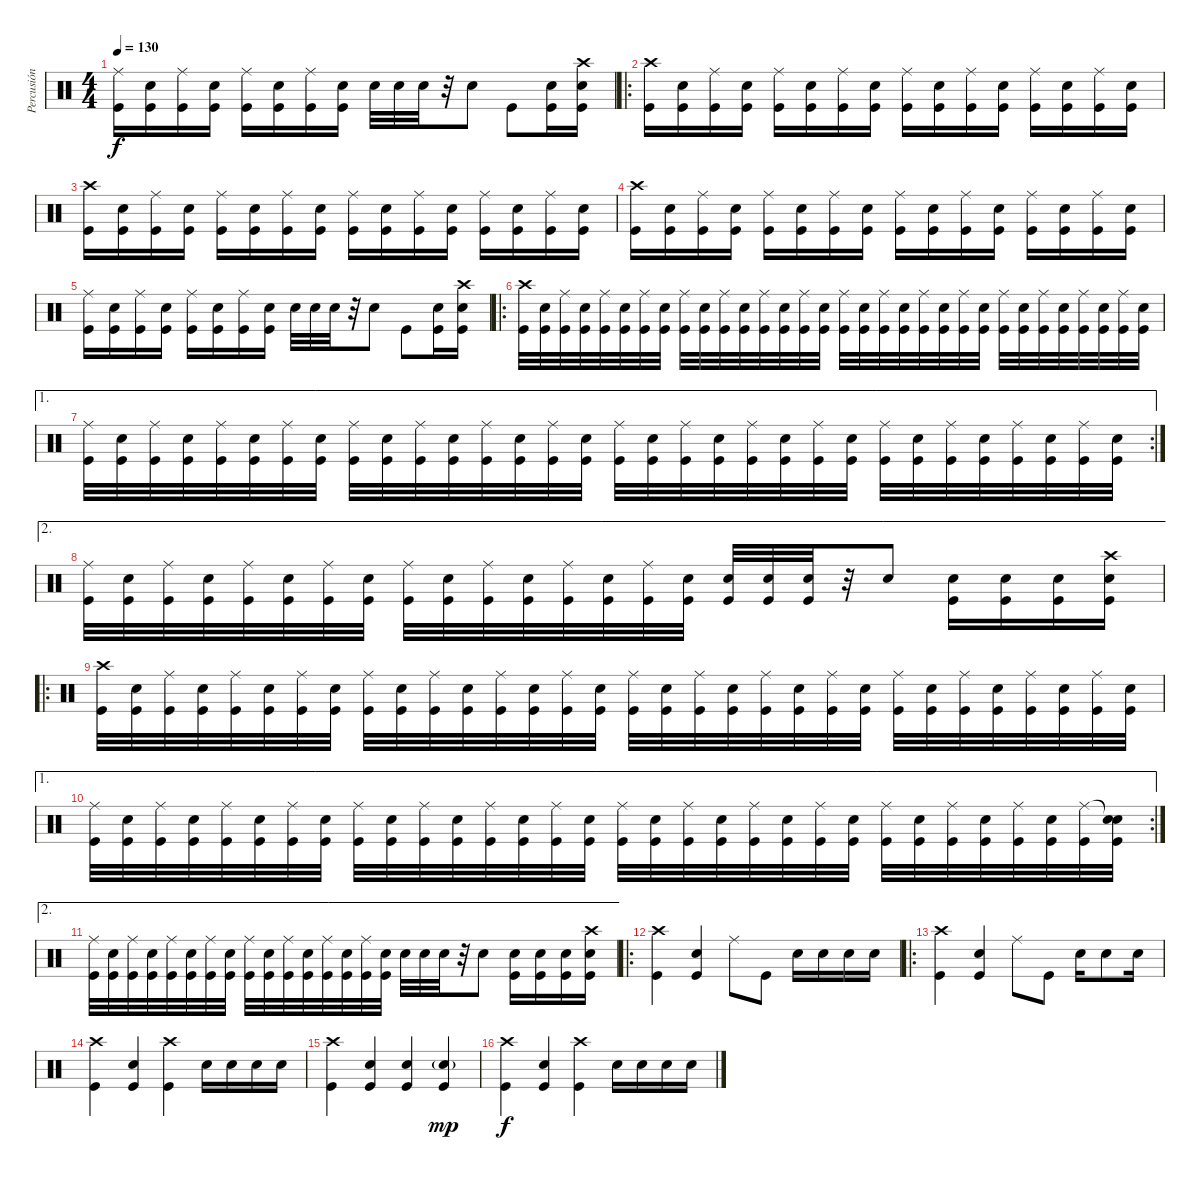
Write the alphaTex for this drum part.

\track ("Percusión" "Percusión") {instrument percussion}
\staff {score}
\articulation defaults
\ts (4 4)
\tempo 130
\clef neutral
\ks c
("Ride (middle)" "Kick (hit)").16{dy f} ("Electric Snare (hit)" "Kick (hit)").16 ("Ride (middle)" "Kick (hit)").16 ("Electric Snare (hit)" "Kick (hit)").16 ("Ride (middle)" "Kick (hit)").16 ("Electric Snare (hit)" "Kick (hit)").16 ("Ride (middle)" "Kick (hit)").16 ("Electric Snare (hit)" "Kick (hit)").16 "Electric Snare (hit)".32 "Electric Snare (hit)".32 "Electric Snare (hit)".32 r.32 "Electric Snare (hit)".8 "Kick (hit)".8 ("Electric Snare (hit)" "Kick (hit)").16 ("Crash high (hit)" "Electric Snare (hit)" "Kick (hit)").16 |
\ro
("Crash high (hit)" "Kick (hit)").16 ("Electric Snare (hit)" "Kick (hit)").16 ("Ride (middle)" "Kick (hit)").16 ("Electric Snare (hit)" "Kick (hit)").16 ("Ride (middle)" "Kick (hit)").16 ("Electric Snare (hit)" "Kick (hit)").16 ("Ride (middle)" "Kick (hit)").16 ("Electric Snare (hit)" "Kick (hit)").16 ("Ride (middle)" "Kick (hit)").16 ("Electric Snare (hit)" "Kick (hit)").16 ("Ride (middle)" "Kick (hit)").16 ("Electric Snare (hit)" "Kick (hit)").16 ("Ride (middle)" "Kick (hit)").16 ("Electric Snare (hit)" "Kick (hit)").16 ("Ride (middle)" "Kick (hit)").16 ("Electric Snare (hit)" "Kick (hit)").16 |
("Crash high (hit)" "Kick (hit)").16 ("Electric Snare (hit)" "Kick (hit)").16 ("Ride (middle)" "Kick (hit)").16 ("Electric Snare (hit)" "Kick (hit)").16 ("Ride (middle)" "Kick (hit)").16 ("Electric Snare (hit)" "Kick (hit)").16 ("Ride (middle)" "Kick (hit)").16 ("Electric Snare (hit)" "Kick (hit)").16 ("Ride (middle)" "Kick (hit)").16 ("Electric Snare (hit)" "Kick (hit)").16 ("Ride (middle)" "Kick (hit)").16 ("Electric Snare (hit)" "Kick (hit)").16 ("Ride (middle)" "Kick (hit)").16 ("Electric Snare (hit)" "Kick (hit)").16 ("Ride (middle)" "Kick (hit)").16 ("Electric Snare (hit)" "Kick (hit)").16 |
("Crash high (hit)" "Kick (hit)").16 ("Electric Snare (hit)" "Kick (hit)").16 ("Ride (middle)" "Kick (hit)").16 ("Electric Snare (hit)" "Kick (hit)").16 ("Ride (middle)" "Kick (hit)").16 ("Electric Snare (hit)" "Kick (hit)").16 ("Ride (middle)" "Kick (hit)").16 ("Electric Snare (hit)" "Kick (hit)").16 ("Ride (middle)" "Kick (hit)").16 ("Electric Snare (hit)" "Kick (hit)").16 ("Ride (middle)" "Kick (hit)").16 ("Electric Snare (hit)" "Kick (hit)").16 ("Ride (middle)" "Kick (hit)").16 ("Electric Snare (hit)" "Kick (hit)").16 ("Ride (middle)" "Kick (hit)").16 ("Electric Snare (hit)" "Kick (hit)").16 |
("Ride (middle)" "Kick (hit)").16 ("Electric Snare (hit)" "Kick (hit)").16 ("Ride (middle)" "Kick (hit)").16 ("Electric Snare (hit)" "Kick (hit)").16 ("Ride (middle)" "Kick (hit)").16 ("Electric Snare (hit)" "Kick (hit)").16 ("Ride (middle)" "Kick (hit)").16 ("Electric Snare (hit)" "Kick (hit)").16 "Electric Snare (hit)".32 "Electric Snare (hit)".32 "Electric Snare (hit)".32 r.32 "Electric Snare (hit)".8 "Kick (hit)".8 ("Electric Snare (hit)" "Kick (hit)").16 ("Crash high (hit)" "Electric Snare (hit)" "Kick (hit)").16 |
\ro
("Crash high (hit)" "Kick (hit)").32 ("Electric Snare (hit)" "Kick (hit)").32 ("Ride (middle)" "Kick (hit)").32 ("Electric Snare (hit)" "Kick (hit)").32 ("Ride (middle)" "Kick (hit)").32 ("Electric Snare (hit)" "Kick (hit)").32 ("Ride (middle)" "Kick (hit)").32 ("Electric Snare (hit)" "Kick (hit)").32 ("Ride (middle)" "Kick (hit)").32 ("Electric Snare (hit)" "Kick (hit)").32 ("Ride (middle)" "Kick (hit)").32 ("Electric Snare (hit)" "Kick (hit)").32 ("Ride (middle)" "Kick (hit)").32 ("Electric Snare (hit)" "Kick (hit)").32 ("Ride (middle)" "Kick (hit)").32 ("Electric Snare (hit)" "Kick (hit)").32 ("Ride (middle)" "Kick (hit)").32 ("Electric Snare (hit)" "Kick (hit)").32 ("Ride (middle)" "Kick (hit)").32 ("Electric Snare (hit)" "Kick (hit)").32 ("Ride (middle)" "Kick (hit)").32 ("Electric Snare (hit)" "Kick (hit)").32 ("Ride (middle)" "Kick (hit)").32 ("Electric Snare (hit)" "Kick (hit)").32 ("Ride (middle)" "Kick (hit)").32 ("Electric Snare (hit)" "Kick (hit)").32 ("Ride (middle)" "Kick (hit)").32 ("Electric Snare (hit)" "Kick (hit)").32 ("Ride (middle)" "Kick (hit)").32 ("Electric Snare (hit)" "Kick (hit)").32 ("Ride (middle)" "Kick (hit)").32 ("Electric Snare (hit)" "Kick (hit)").32 |
\ae 1
\rc 2
("Ride (middle)" "Kick (hit)").32 ("Electric Snare (hit)" "Kick (hit)").32 ("Ride (middle)" "Kick (hit)").32 ("Electric Snare (hit)" "Kick (hit)").32 ("Ride (middle)" "Kick (hit)").32 ("Electric Snare (hit)" "Kick (hit)").32 ("Ride (middle)" "Kick (hit)").32 ("Electric Snare (hit)" "Kick (hit)").32 ("Ride (middle)" "Kick (hit)").32 ("Electric Snare (hit)" "Kick (hit)").32 ("Ride (middle)" "Kick (hit)").32 ("Electric Snare (hit)" "Kick (hit)").32 ("Ride (middle)" "Kick (hit)").32 ("Electric Snare (hit)" "Kick (hit)").32 ("Ride (middle)" "Kick (hit)").32 ("Electric Snare (hit)" "Kick (hit)").32 ("Ride (middle)" "Kick (hit)").32 ("Electric Snare (hit)" "Kick (hit)").32 ("Ride (middle)" "Kick (hit)").32 ("Electric Snare (hit)" "Kick (hit)").32 ("Ride (middle)" "Kick (hit)").32 ("Electric Snare (hit)" "Kick (hit)").32 ("Ride (middle)" "Kick (hit)").32 ("Electric Snare (hit)" "Kick (hit)").32 ("Ride (middle)" "Kick (hit)").32 ("Electric Snare (hit)" "Kick (hit)").32 ("Ride (middle)" "Kick (hit)").32 ("Electric Snare (hit)" "Kick (hit)").32 ("Ride (middle)" "Kick (hit)").32 ("Electric Snare (hit)" "Kick (hit)").32 ("Ride (middle)" "Kick (hit)").32 ("Electric Snare (hit)" "Kick (hit)").32 |
\ae 2
("Ride (middle)" "Kick (hit)").32 ("Electric Snare (hit)" "Kick (hit)").32 ("Ride (middle)" "Kick (hit)").32 ("Electric Snare (hit)" "Kick (hit)").32 ("Ride (middle)" "Kick (hit)").32 ("Electric Snare (hit)" "Kick (hit)").32 ("Ride (middle)" "Kick (hit)").32 ("Electric Snare (hit)" "Kick (hit)").32 ("Ride (middle)" "Kick (hit)").32 ("Electric Snare (hit)" "Kick (hit)").32 ("Ride (middle)" "Kick (hit)").32 ("Electric Snare (hit)" "Kick (hit)").32 ("Ride (middle)" "Kick (hit)").32 ("Electric Snare (hit)" "Kick (hit)").32 ("Ride (middle)" "Kick (hit)").32 ("Electric Snare (hit)" "Kick (hit)").32 ("Electric Snare (hit)" "Kick (hit)").32 ("Electric Snare (hit)" "Kick (hit)").32 ("Electric Snare (hit)" "Kick (hit)").32 r.32 "Electric Snare (hit)".8 ("Electric Snare (hit)" "Kick (hit)").16 ("Electric Snare (hit)" "Kick (hit)").16 ("Electric Snare (hit)" "Kick (hit)").16 ("Crash high (hit)" "Electric Snare (hit)" "Kick (hit)").16 |
\ro
("Crash high (hit)" "Kick (hit)").32 ("Electric Snare (hit)" "Kick (hit)").32 ("Ride (middle)" "Kick (hit)").32 ("Electric Snare (hit)" "Kick (hit)").32 ("Ride (middle)" "Kick (hit)").32 ("Electric Snare (hit)" "Kick (hit)").32 ("Ride (middle)" "Kick (hit)").32 ("Electric Snare (hit)" "Kick (hit)").32 ("Ride (middle)" "Kick (hit)").32 ("Electric Snare (hit)" "Kick (hit)").32 ("Ride (middle)" "Kick (hit)").32 ("Electric Snare (hit)" "Kick (hit)").32 ("Ride (middle)" "Kick (hit)").32 ("Electric Snare (hit)" "Kick (hit)").32 ("Ride (middle)" "Kick (hit)").32 ("Electric Snare (hit)" "Kick (hit)").32 ("Ride (middle)" "Kick (hit)").32 ("Electric Snare (hit)" "Kick (hit)").32 ("Ride (middle)" "Kick (hit)").32 ("Electric Snare (hit)" "Kick (hit)").32 ("Ride (middle)" "Kick (hit)").32 ("Electric Snare (hit)" "Kick (hit)").32 ("Ride (middle)" "Kick (hit)").32 ("Electric Snare (hit)" "Kick (hit)").32 ("Ride (middle)" "Kick (hit)").32 ("Electric Snare (hit)" "Kick (hit)").32 ("Ride (middle)" "Kick (hit)").32 ("Electric Snare (hit)" "Kick (hit)").32 ("Ride (middle)" "Kick (hit)").32 ("Electric Snare (hit)" "Kick (hit)").32 ("Ride (middle)" "Kick (hit)").32 ("Electric Snare (hit)" "Kick (hit)").32 |
\ae 1
\rc 2
("Ride (middle)" "Kick (hit)").32 ("Electric Snare (hit)" "Kick (hit)").32 ("Ride (middle)" "Kick (hit)").32 ("Electric Snare (hit)" "Kick (hit)").32 ("Ride (middle)" "Kick (hit)").32 ("Electric Snare (hit)" "Kick (hit)").32 ("Ride (middle)" "Kick (hit)").32 ("Electric Snare (hit)" "Kick (hit)").32 ("Ride (middle)" "Kick (hit)").32 ("Electric Snare (hit)" "Kick (hit)").32 ("Ride (middle)" "Kick (hit)").32 ("Electric Snare (hit)" "Kick (hit)").32 ("Ride (middle)" "Kick (hit)").32 ("Electric Snare (hit)" "Kick (hit)").32 ("Ride (middle)" "Kick (hit)").32 ("Electric Snare (hit)" "Kick (hit)").32 ("Ride (middle)" "Kick (hit)").32 ("Electric Snare (hit)" "Kick (hit)").32 ("Ride (middle)" "Kick (hit)").32 ("Electric Snare (hit)" "Kick (hit)").32 ("Ride (middle)" "Kick (hit)").32 ("Electric Snare (hit)" "Kick (hit)").32 ("Ride (middle)" "Kick (hit)").32 ("Electric Snare (hit)" "Kick (hit)").32 ("Ride (middle)" "Kick (hit)").32 ("Electric Snare (hit)" "Kick (hit)").32 ("Ride (middle)" "Kick (hit)").32 ("Electric Snare (hit)" "Kick (hit)").32 ("Ride (middle)" "Kick (hit)").32 ("Electric Snare (hit)" "Kick (hit)").32 ("Ride (middle)" "Kick (hit)").32 ("Snare (hit)"{t} "Electric Snare (hit)" "Kick (hit)").32 |
\ae 2
("Ride (middle)" "Kick (hit)").32 ("Electric Snare (hit)" "Kick (hit)").32 ("Ride (middle)" "Kick (hit)").32 ("Electric Snare (hit)" "Kick (hit)").32 ("Ride (middle)" "Kick (hit)").32 ("Electric Snare (hit)" "Kick (hit)").32 ("Ride (middle)" "Kick (hit)").32 ("Electric Snare (hit)" "Kick (hit)").32 ("Ride (middle)" "Kick (hit)").32 ("Electric Snare (hit)" "Kick (hit)").32 ("Ride (middle)" "Kick (hit)").32 ("Electric Snare (hit)" "Kick (hit)").32 ("Ride (middle)" "Kick (hit)").32 ("Electric Snare (hit)" "Kick (hit)").32 ("Ride (middle)" "Kick (hit)").32 ("Electric Snare (hit)" "Kick (hit)").32 "Electric Snare (hit)".32 "Electric Snare (hit)".32 "Electric Snare (hit)".32 r.32 "Electric Snare (hit)".8 ("Electric Snare (hit)" "Kick (hit)").16 ("Electric Snare (hit)" "Kick (hit)").16 ("Electric Snare (hit)" "Kick (hit)").16 ("Crash high (hit)" "Electric Snare (hit)" "Kick (hit)").16 |
\ro
("Crash high (hit)" "Kick (hit)").4 ("Electric Snare (hit)" "Kick (hit)").4 "Ride (middle)".8 "Kick (hit)".8 "Electric Snare (hit)".16 "Electric Snare (hit)".16 "Electric Snare (hit)".16 "Electric Snare (hit)".16 |
\ro
("Crash high (hit)" "Kick (hit)").4 ("Electric Snare (hit)" "Kick (hit)").4 "Ride (middle)".8 "Kick (hit)".8 "Electric Snare (hit)".16 "Electric Snare (hit)".8 "Electric Snare (hit)".16 |
("Crash high (hit)" "Kick (hit)").4 ("Electric Snare (hit)" "Kick (hit)").4 ("Crash high (hit)" "Kick (hit)").4 "Electric Snare (hit)".16 "Electric Snare (hit)".16 "Electric Snare (hit)".16 "Electric Snare (hit)".16 |
("Crash high (hit)" "Kick (hit)").4 ("Electric Snare (hit)" "Kick (hit)").4 ("Snare (hit) 2" "Kick (hit)").4 ("Snare (hit) 2"{g} "Kick (hit)").4{dy mp} |
("Crash high (hit)" "Kick (hit)").4{dy f} ("Electric Snare (hit)" "Kick (hit)").4 ("Crash high (hit)" "Kick (hit)").4 "Electric Snare (hit)".16 "Electric Snare (hit)".16 "Electric Snare (hit)".16 "Electric Snare (hit)".16
